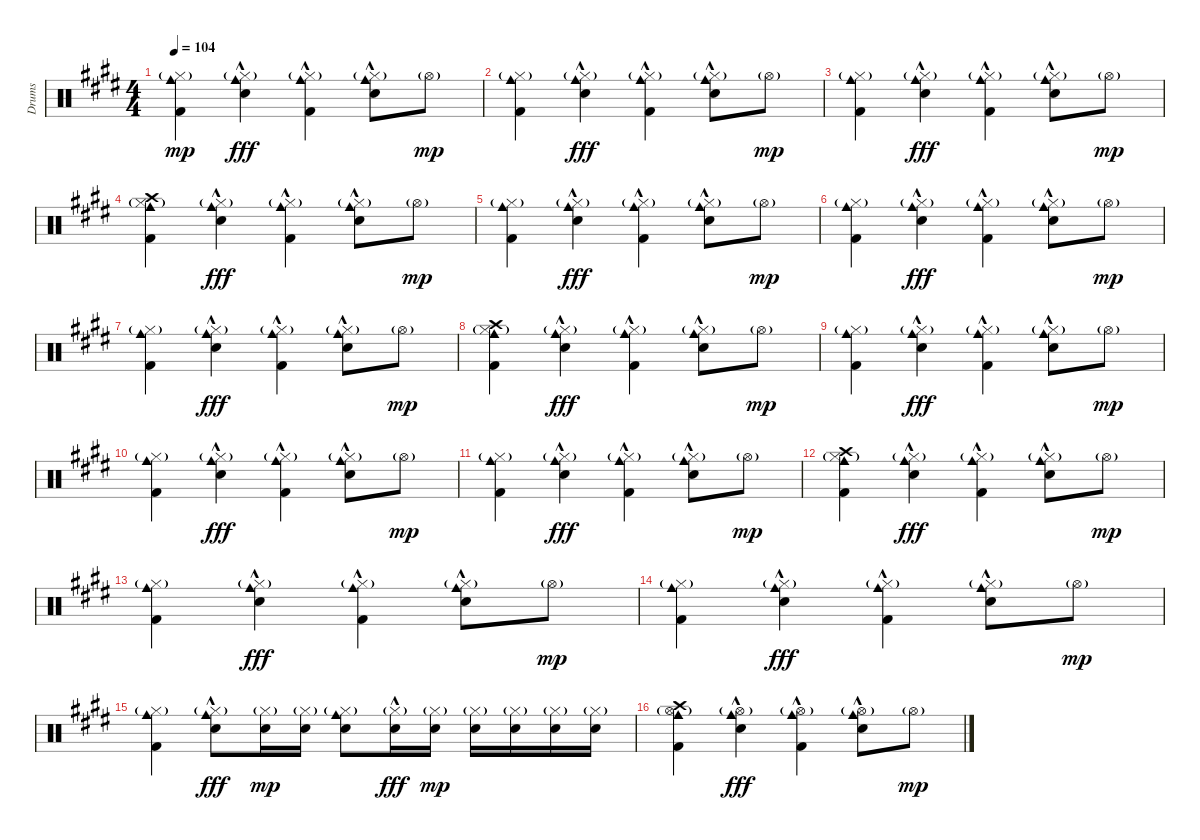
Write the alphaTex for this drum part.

\track ("Drums" "Drums") {instrument percussion}
\staff {score}
\articulation defaults
\ts (4 4)
\tempo 104
\clef neutral
\ks e
("Cowbell medium (hit)" "Hi-Hat (closed)"{g} "Kick (hit) 2").4{dy mp} ("Cowbell medium (hit)" "Hi-Hat (closed)"{g} "Electric Snare (hit)"{hac}).4{dy fff} ("Cowbell medium (hit)" "Hi-Hat (closed)"{g} "Kick (hit) 2"{hac}).4 ("Cowbell medium (hit)" "Hi-Hat (closed)"{g} "Electric Snare (hit)"{hac}).8 "Hi-Hat (open)"{g}.8{dy mp} |
("Cowbell medium (hit)" "Hi-Hat (closed)"{g} "Kick (hit) 2").4 ("Cowbell medium (hit)" "Hi-Hat (closed)"{g} "Electric Snare (hit)"{hac}).4{dy fff} ("Cowbell medium (hit)" "Hi-Hat (closed)"{g} "Kick (hit) 2"{hac}).4 ("Cowbell medium (hit)" "Hi-Hat (closed)"{g} "Electric Snare (hit)"{hac}).8 "Hi-Hat (open)"{g}.8{dy mp} |
("Cowbell medium (hit)" "Hi-Hat (closed)"{g} "Kick (hit) 2").4 ("Cowbell medium (hit)" "Hi-Hat (closed)"{g} "Electric Snare (hit)"{hac}).4{dy fff} ("Cowbell medium (hit)" "Hi-Hat (closed)"{g} "Kick (hit) 2"{hac}).4 ("Cowbell medium (hit)" "Hi-Hat (closed)"{g} "Electric Snare (hit)"{hac}).8 "Hi-Hat (open)"{g}.8{dy mp} |
("Cowbell medium (hit)" "Hi-Hat (closed)"{g} "Crash high (hit)" "Kick (hit) 2").4 ("Cowbell medium (hit)" "Hi-Hat (closed)"{g} "Electric Snare (hit)"{hac}).4{dy fff} ("Cowbell medium (hit)" "Hi-Hat (closed)"{g} "Kick (hit) 2"{hac}).4 ("Cowbell medium (hit)" "Hi-Hat (closed)"{g} "Electric Snare (hit)"{hac}).8 "Hi-Hat (open)"{g}.8{dy mp} |
("Cowbell medium (hit)" "Hi-Hat (closed)"{g} "Kick (hit) 2").4 ("Cowbell medium (hit)" "Hi-Hat (closed)"{g} "Electric Snare (hit)"{hac}).4{dy fff} ("Cowbell medium (hit)" "Hi-Hat (closed)"{g} "Kick (hit) 2"{hac}).4 ("Cowbell medium (hit)" "Hi-Hat (closed)"{g} "Electric Snare (hit)"{hac}).8 "Hi-Hat (open)"{g}.8{dy mp} |
("Cowbell medium (hit)" "Hi-Hat (closed)"{g} "Kick (hit) 2").4 ("Cowbell medium (hit)" "Hi-Hat (closed)"{g} "Electric Snare (hit)"{hac}).4{dy fff} ("Cowbell medium (hit)" "Hi-Hat (closed)"{g} "Kick (hit) 2"{hac}).4 ("Cowbell medium (hit)" "Hi-Hat (closed)"{g} "Electric Snare (hit)"{hac}).8 "Hi-Hat (open)"{g}.8{dy mp} |
("Cowbell medium (hit)" "Hi-Hat (closed)"{g} "Kick (hit) 2").4 ("Cowbell medium (hit)" "Hi-Hat (closed)"{g} "Electric Snare (hit)"{hac}).4{dy fff} ("Cowbell medium (hit)" "Hi-Hat (closed)"{g} "Kick (hit) 2"{hac}).4 ("Cowbell medium (hit)" "Hi-Hat (closed)"{g} "Electric Snare (hit)"{hac}).8 "Hi-Hat (open)"{g}.8{dy mp} |
("Cowbell medium (hit)" "Hi-Hat (closed)"{g} "Crash high (hit)" "Kick (hit) 2").4 ("Cowbell medium (hit)" "Hi-Hat (closed)"{g} "Electric Snare (hit)"{hac}).4{dy fff} ("Cowbell medium (hit)" "Hi-Hat (closed)"{g} "Kick (hit) 2"{hac}).4 ("Cowbell medium (hit)" "Hi-Hat (closed)"{g} "Electric Snare (hit)"{hac}).8 "Hi-Hat (open)"{g}.8{dy mp} |
("Cowbell medium (hit)" "Hi-Hat (closed)"{g} "Kick (hit) 2").4 ("Cowbell medium (hit)" "Hi-Hat (closed)"{g} "Electric Snare (hit)"{hac}).4{dy fff} ("Cowbell medium (hit)" "Hi-Hat (closed)"{g} "Kick (hit) 2"{hac}).4 ("Cowbell medium (hit)" "Hi-Hat (closed)"{g} "Electric Snare (hit)"{hac}).8 "Hi-Hat (open)"{g}.8{dy mp} |
("Cowbell medium (hit)" "Hi-Hat (closed)"{g} "Kick (hit) 2").4 ("Cowbell medium (hit)" "Hi-Hat (closed)"{g} "Electric Snare (hit)"{hac}).4{dy fff} ("Cowbell medium (hit)" "Hi-Hat (closed)"{g} "Kick (hit) 2"{hac}).4 ("Cowbell medium (hit)" "Hi-Hat (closed)"{g} "Electric Snare (hit)"{hac}).8 "Hi-Hat (open)"{g}.8{dy mp} |
("Cowbell medium (hit)" "Hi-Hat (closed)"{g} "Kick (hit) 2").4 ("Cowbell medium (hit)" "Hi-Hat (closed)"{g} "Electric Snare (hit)"{hac}).4{dy fff} ("Cowbell medium (hit)" "Hi-Hat (closed)"{g} "Kick (hit) 2"{hac}).4 ("Cowbell medium (hit)" "Hi-Hat (closed)"{g} "Electric Snare (hit)"{hac}).8 "Hi-Hat (open)"{g}.8{dy mp} |
("Cowbell medium (hit)" "Hi-Hat (closed)"{g} "Crash high (hit)" "Kick (hit) 2").4 ("Cowbell medium (hit)" "Hi-Hat (closed)"{g} "Electric Snare (hit)"{hac}).4{dy fff} ("Cowbell medium (hit)" "Hi-Hat (closed)"{g} "Kick (hit) 2"{hac}).4 ("Cowbell medium (hit)" "Hi-Hat (closed)"{g} "Electric Snare (hit)"{hac}).8 "Hi-Hat (open)"{g}.8{dy mp} |
("Cowbell medium (hit)" "Hi-Hat (closed)"{g} "Kick (hit) 2").4 ("Cowbell medium (hit)" "Hi-Hat (closed)"{g} "Electric Snare (hit)"{hac}).4{dy fff} ("Cowbell medium (hit)" "Hi-Hat (closed)"{g} "Kick (hit) 2"{hac}).4 ("Cowbell medium (hit)" "Hi-Hat (closed)"{g} "Electric Snare (hit)"{hac}).8 "Hi-Hat (open)"{g}.8{dy mp} |
("Cowbell medium (hit)" "Hi-Hat (closed)"{g} "Kick (hit) 2").4 ("Cowbell medium (hit)" "Hi-Hat (closed)"{g} "Electric Snare (hit)"{hac}).4{dy fff} ("Cowbell medium (hit)" "Hi-Hat (closed)"{g} "Kick (hit) 2"{hac}).4 ("Cowbell medium (hit)" "Hi-Hat (closed)"{g} "Electric Snare (hit)"{hac}).8 "Hi-Hat (open)"{g}.8{dy mp} |
("Cowbell medium (hit)" "Hi-Hat (closed)"{g} "Kick (hit) 2").4 ("Cowbell medium (hit)" "Hi-Hat (closed)"{g} "Electric Snare (hit)"{hac}).8{dy fff} ("Hi-Hat (closed)"{g} "Electric Snare (hit)").16{dy mp} ("Hi-Hat (closed)"{g} "Electric Snare (hit)").16 ("Cowbell medium (hit)" "Hi-Hat (closed)"{g} "Electric Snare (hit)").8 ("Hi-Hat (closed)"{g} "Electric Snare (hit)"{hac}).16{dy fff} ("Hi-Hat (closed)"{g} "Electric Snare (hit)").16{dy mp} ("Hi-Hat (closed)"{g} "Electric Snare (hit)").16 ("Hi-Hat (closed)"{g} "Electric Snare (hit)").16 ("Hi-Hat (closed)"{g} "Electric Snare (hit)").16 ("Hi-Hat (closed)"{g} "Electric Snare (hit)").16 |
("Cowbell medium (hit)" "Hi-Hat (open)"{g} "Crash high (hit)" "Kick (hit) 2").4 ("Cowbell medium (hit)" "Hi-Hat (open)"{g} "Electric Snare (hit)"{hac}).4{dy fff} ("Cowbell medium (hit)" "Hi-Hat (open)"{g} "Kick (hit) 2"{hac}).4 ("Cowbell medium (hit)" "Hi-Hat (open)"{g} "Electric Snare (hit)"{hac}).8 "Hi-Hat (open)"{g}.8{dy mp}
